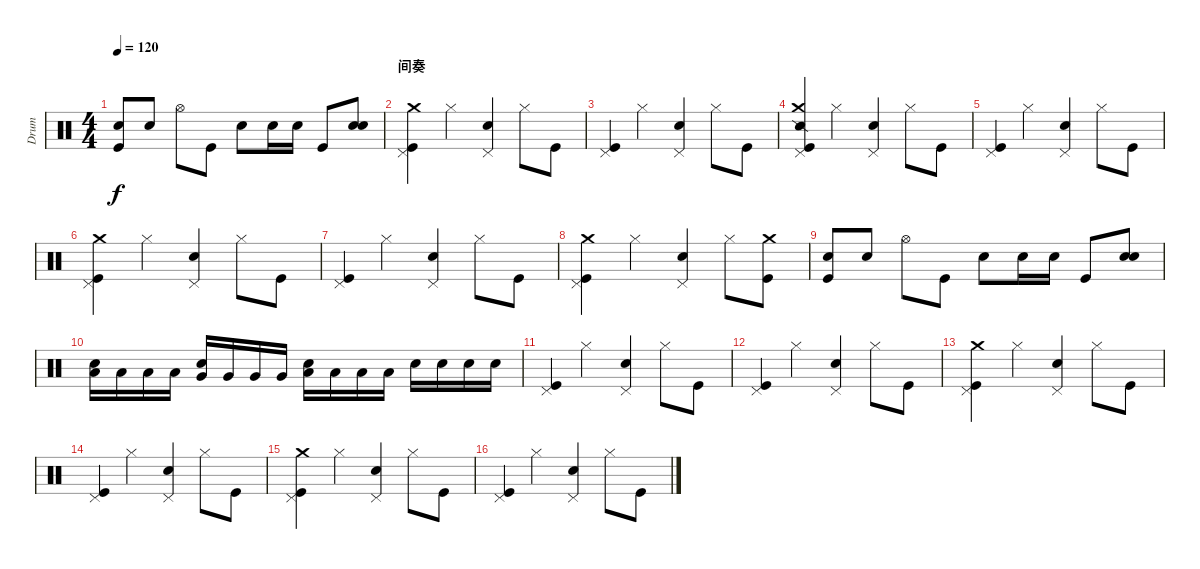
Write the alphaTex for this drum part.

\track ("Drum" "Drum") {instrument percussion}
\staff {score}
\articulation defaults
\ts (4 4)
\tempo 120
\clef neutral
\ks c
("Electric Snare (hit)" "Kick (hit)").8{dy f} "Snare (hit) 2".8 "Hi-Hat (open)".8 "Kick (hit)".8 "Snare (hit) 2".8 "Electric Snare (hit)".16 "Electric Snare (hit)".16 "Kick (hit)".8 ("Electric Snare (hit)" "Snare (hit) 2").8 |
\section ("" "间奏")
("Pedal Hi-Hat (hit)" "Crash medium (hit)" "Kick (hit)").4 "Hi-Hat (closed)".4 ("Pedal Hi-Hat (hit)" "Snare (hit) 2").4 "Hi-Hat (closed)".8 "Kick (hit)".8 |
("Pedal Hi-Hat (hit)" "Kick (hit)").4 "Hi-Hat (closed)".4 ("Pedal Hi-Hat (hit)" "Snare (hit) 2").4 "Hi-Hat (closed)".8 "Kick (hit)".8 |
("Pedal Hi-Hat (hit)" "Crash medium (hit)" "Snare (side stick) 2" "Kick (hit)").4 "Hi-Hat (closed)".4 ("Pedal Hi-Hat (hit)" "Snare (hit) 2").4 "Hi-Hat (closed)".8 "Kick (hit)".8 |
("Pedal Hi-Hat (hit)" "Kick (hit)").4 "Hi-Hat (closed)".4 ("Pedal Hi-Hat (hit)" "Snare (hit) 2").4 "Hi-Hat (closed)".8 "Kick (hit)".8 |
("Pedal Hi-Hat (hit)" "Crash medium (hit)" "Kick (hit)").4 "Hi-Hat (closed)".4 ("Pedal Hi-Hat (hit)" "Snare (hit) 2").4 "Hi-Hat (closed)".8 "Kick (hit)".8 |
("Pedal Hi-Hat (hit)" "Kick (hit)").4 "Hi-Hat (closed)".4 ("Pedal Hi-Hat (hit)" "Snare (hit) 2").4 "Hi-Hat (closed)".8 "Kick (hit)".8 |
("Pedal Hi-Hat (hit)" "Crash medium (hit)" "Kick (hit)").4 "Hi-Hat (closed)".4 ("Pedal Hi-Hat (hit)" "Snare (hit) 2").4 "Hi-Hat (closed)".8 ("Crash medium (hit)" "Kick (hit)").8 |
("Electric Snare (hit)" "Kick (hit)").8 "Snare (hit) 2".8 "Hi-Hat (open)".8 "Kick (hit)".8 "Snare (hit) 2".8 "Electric Snare (hit)".16 "Electric Snare (hit)".16 "Kick (hit)".8 ("Electric Snare (hit)" "Snare (hit) 2").8 |
("Snare (hit) 2" "Low Tom (hit)").16 "Low Tom (hit)".16 "Low Tom (hit)".16 "Low Tom (hit)".16 ("Snare (hit) 2" "Very Low Tom (hit)").16 "Very Low Tom (hit)".16 "Very Low Tom (hit)".16 "Very Low Tom (hit)".16 ("Snare (hit) 2" "Low Floor Tom (hit)").16 "Low Floor Tom (hit)".16 "Low Floor Tom (hit)".16 "Low Floor Tom (hit)".16 "Snare (hit) 2".16 "Snare (hit) 2".16 "Snare (hit) 2".16 "Snare (hit) 2".16 |
("Pedal Hi-Hat (hit)" "Kick (hit)").4 "Hi-Hat (closed)".4 ("Pedal Hi-Hat (hit)" "Snare (hit) 2").4 "Hi-Hat (closed)".8 "Kick (hit)".8 |
("Pedal Hi-Hat (hit)" "Kick (hit)").4 "Hi-Hat (closed)".4 ("Pedal Hi-Hat (hit)" "Snare (hit) 2").4 "Hi-Hat (closed)".8 "Kick (hit)".8 |
("Pedal Hi-Hat (hit)" "Crash medium (hit)" "Kick (hit)").4 "Hi-Hat (closed)".4 ("Pedal Hi-Hat (hit)" "Snare (hit) 2").4 "Hi-Hat (closed)".8 "Kick (hit)".8 |
("Pedal Hi-Hat (hit)" "Kick (hit)").4 "Hi-Hat (closed)".4 ("Pedal Hi-Hat (hit)" "Snare (hit) 2").4 "Hi-Hat (closed)".8 "Kick (hit)".8 |
("Pedal Hi-Hat (hit)" "Crash medium (hit)" "Kick (hit)").4 "Hi-Hat (closed)".4 ("Pedal Hi-Hat (hit)" "Snare (hit) 2").4 "Hi-Hat (closed)".8 "Kick (hit)".8 |
("Pedal Hi-Hat (hit)" "Kick (hit)").4 "Hi-Hat (closed)".4 ("Pedal Hi-Hat (hit)" "Snare (hit) 2").4 "Hi-Hat (closed)".8 "Kick (hit)".8
